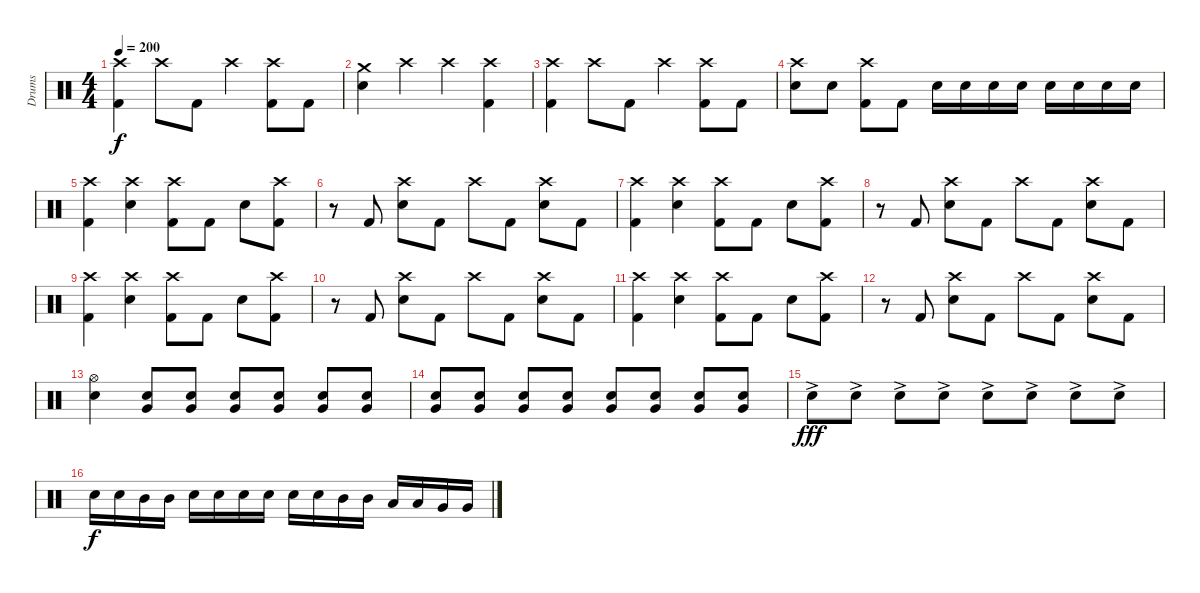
\track ("Drums" "Drums") {instrument percussion}
\staff {score}
\articulation defaults
\ts (4 4)
\tempo 200
\clef neutral
\ks c
("Crash high (hit)" "Kick (hit) 2").4{dy f} "Crash high (hit)".8 "Kick (hit) 2".8 "Crash high (hit)".4 ("Kick (hit) 2" "Crash high (hit)").8 "Kick (hit) 2".8 |
("Crash medium (hit)" "Electric Snare (hit)").4 "Crash high (hit)".4 "Crash high (hit)".4 ("Crash high (hit)" "Kick (hit) 2").4 |
("Crash high (hit)" "Kick (hit) 2").4 "Crash high (hit)".8 "Kick (hit) 2".8 "Crash high (hit)".4 ("Kick (hit) 2" "Crash high (hit)").8 "Kick (hit) 2".8 |
("Crash high (hit)" "Electric Snare (hit)").8 "Electric Snare (hit)".8 ("Crash high (hit)" "Kick (hit) 2").8 "Kick (hit) 2".8 "Electric Snare (hit)".16 "Electric Snare (hit)".16 "Electric Snare (hit)".16 "Electric Snare (hit)".16 "Electric Snare (hit)".16 "Electric Snare (hit)".16 "Electric Snare (hit)".16 "Electric Snare (hit)".16 |
("Crash high (hit)" "Kick (hit) 2").4 ("Crash high (hit)" "Electric Snare (hit)").4 ("Crash high (hit)" "Kick (hit) 2").8 "Kick (hit) 2".8 "Electric Snare (hit)".8 ("Crash high (hit)" "Kick (hit) 2").8 |
r.8 "Kick (hit) 2".8 ("Crash high (hit)" "Electric Snare (hit)").8 "Kick (hit) 2".8 "Crash high (hit)".8 "Kick (hit) 2".8 ("Crash high (hit)" "Electric Snare (hit)").8 "Kick (hit) 2".8 |
("Crash high (hit)" "Kick (hit) 2").4 ("Crash high (hit)" "Electric Snare (hit)").4 ("Crash high (hit)" "Kick (hit) 2").8 "Kick (hit) 2".8 "Electric Snare (hit)".8 ("Crash high (hit)" "Kick (hit) 2").8 |
r.8 "Kick (hit) 2".8 ("Crash high (hit)" "Electric Snare (hit)").8 "Kick (hit) 2".8 "Crash high (hit)".8 "Kick (hit) 2".8 ("Crash high (hit)" "Electric Snare (hit)").8 "Kick (hit) 2".8 |
("Crash high (hit)" "Kick (hit) 2").4 ("Crash high (hit)" "Electric Snare (hit)").4 ("Crash high (hit)" "Kick (hit) 2").8 "Kick (hit) 2".8 "Electric Snare (hit)".8 ("Crash high (hit)" "Kick (hit) 2").8 |
r.8 "Kick (hit) 2".8 ("Crash high (hit)" "Electric Snare (hit)").8 "Kick (hit) 2".8 "Crash high (hit)".8 "Kick (hit) 2".8 ("Crash high (hit)" "Electric Snare (hit)").8 "Kick (hit) 2".8 |
("Crash high (hit)" "Kick (hit) 2").4 ("Crash high (hit)" "Electric Snare (hit)").4 ("Crash high (hit)" "Kick (hit) 2").8 "Kick (hit) 2".8 "Electric Snare (hit)".8 ("Crash high (hit)" "Kick (hit) 2").8 |
r.8 "Kick (hit) 2".8 ("Crash high (hit)" "Electric Snare (hit)").8 "Kick (hit) 2".8 "Crash high (hit)".8 "Kick (hit) 2".8 ("Crash high (hit)" "Electric Snare (hit)").8 "Kick (hit) 2".8 |
("Hi-Hat (open)" "Electric Snare (hit)").4 ("Electric Snare (hit)" "Very Low Tom (hit)").8 ("Electric Snare (hit)" "Very Low Tom (hit)").8 ("Electric Snare (hit)" "Very Low Tom (hit)").8 ("Electric Snare (hit)" "Very Low Tom (hit)").8 ("Electric Snare (hit)" "Very Low Tom (hit)").8 ("Electric Snare (hit)" "Very Low Tom (hit)").8 |
("Electric Snare (hit)" "Very Low Tom (hit)").8 ("Electric Snare (hit)" "Very Low Tom (hit)").8 ("Electric Snare (hit)" "Very Low Tom (hit)").8 ("Electric Snare (hit)" "Very Low Tom (hit)").8 ("Electric Snare (hit)" "Very Low Tom (hit)").8 ("Electric Snare (hit)" "Very Low Tom (hit)").8 ("Electric Snare (hit)" "Very Low Tom (hit)").8 ("Electric Snare (hit)" "Very Low Tom (hit)").8 |
"Electric Snare (hit)"{ac}.8{dy fff} "Electric Snare (hit)"{ac}.8 "Electric Snare (hit)"{ac}.8 "Electric Snare (hit)"{ac}.8 "Electric Snare (hit)"{ac}.8 "Electric Snare (hit)"{ac}.8 "Electric Snare (hit)"{ac}.8 "Electric Snare (hit)"{ac}.8 |
"Electric Snare (hit)".16{dy f} "Electric Snare (hit)".16 "Mid Tom (hit)".16 "Mid Tom (hit)".16 "Electric Snare (hit)".16 "Electric Snare (hit)".16 "Electric Snare (hit)".16 "Electric Snare (hit)".16 "Electric Snare (hit)".16 "Electric Snare (hit)".16 "Mid Tom (hit)".16 "Mid Tom (hit)".16 "Low Tom (hit)".16 "Low Tom (hit)".16 "Very Low Tom (hit)".16 "Very Low Tom (hit)".16
